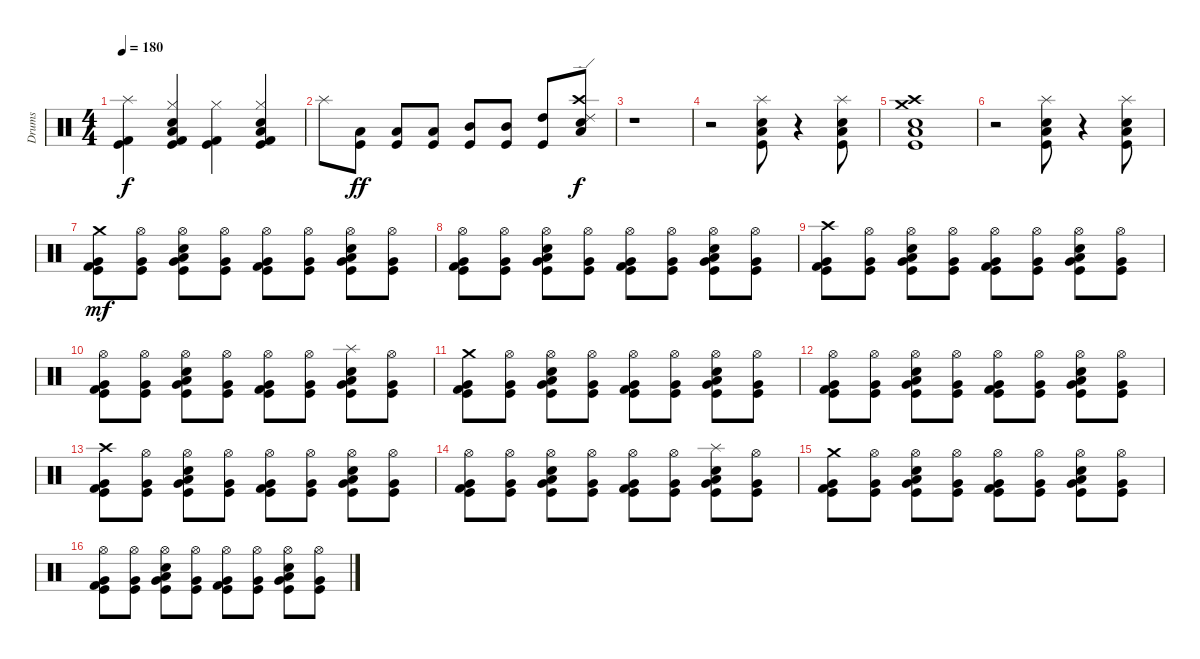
\track ("Drums" "Drums") {instrument percussion}
\staff {score}
\articulation defaults
\ts (4 4)
\tempo 180
\clef neutral
\ks c
("Splash (hit)" "Kick (hit) 2" "Kick (hit)").4{dy f} ("Hi-Hat (closed)" "Electric Snare (hit)" "Low Tom (hit)" "Kick (hit) 2" "Kick (hit)").4 ("Hi-Hat (closed)" "Kick (hit) 2" "Kick (hit)").4 ("Hi-Hat (closed)" "Electric Snare (hit)" "Low Tom (hit)" "Kick (hit) 2" "Kick (hit)").4 |
"Splash (hit)".8 ("Low Floor Tom (hit)" "Kick (hit)").8{dy ff} ("Low Floor Tom (hit)" "Kick (hit)").8 ("Low Tom (hit)" "Kick (hit)").8 ("Mid Tom (hit)" "Kick (hit)").8 ("Mid Tom (hit)" "Kick (hit)").8 ("High Tom (hit)" "Kick (hit)").8 ("Crash high (hit)" "Ride (edge) 2" "Low Tom (hit)" "Electric Snare (hit)").8{dy f} |
r.1 |
r.2 ("Kick (hit)" "Splash (hit)" "Low Tom (hit)" "Electric Snare (hit)").8 r.4 ("Splash (hit)" "Kick (hit)" "Low Tom (hit)" "Electric Snare (hit)").8 |
("Crash high (hit)" "Crash medium (hit)" "Kick (hit)" "Low Tom (hit)" "Electric Snare (hit)").1 |
r.2 ("Kick (hit)" "Splash (hit)" "Low Tom (hit)" "Electric Snare (hit)").8 r.4 ("Splash (hit)" "Kick (hit)" "Low Tom (hit)" "Electric Snare (hit)").8 |
("Crash medium (hit)" "Very Low Tom (hit)" "Kick (hit) 2" "Kick (hit)").8{dy mf} ("Hi-Hat (open)" "Very Low Tom (hit)" "Kick (hit)").8 ("Hi-Hat (open)" "Electric Snare (hit)" "Low Floor Tom (hit)" "Very Low Tom (hit)" "Kick (hit)").8 ("Hi-Hat (open)" "Very Low Tom (hit)" "Kick (hit)").8 ("Hi-Hat (open)" "Very Low Tom (hit)" "Kick (hit) 2" "Kick (hit)").8 ("Hi-Hat (open)" "Very Low Tom (hit)" "Kick (hit)").8 ("Hi-Hat (open)" "Electric Snare (hit)" "Low Floor Tom (hit)" "Very Low Tom (hit)" "Kick (hit)").8 ("Hi-Hat (open)" "Very Low Tom (hit)" "Kick (hit)").8 |
("Hi-Hat (open)" "Very Low Tom (hit)" "Kick (hit) 2" "Kick (hit)").8 ("Hi-Hat (open)" "Very Low Tom (hit)" "Kick (hit)").8 ("Hi-Hat (open)" "Electric Snare (hit)" "Low Floor Tom (hit)" "Very Low Tom (hit)" "Kick (hit)").8 ("Hi-Hat (open)" "Very Low Tom (hit)" "Kick (hit)").8 ("Hi-Hat (open)" "Very Low Tom (hit)" "Kick (hit) 2" "Kick (hit)").8 ("Hi-Hat (open)" "Very Low Tom (hit)" "Kick (hit)").8 ("Hi-Hat (open)" "Electric Snare (hit)" "Low Floor Tom (hit)" "Very Low Tom (hit)" "Kick (hit)").8 ("Hi-Hat (open)" "Very Low Tom (hit)" "Kick (hit)").8 |
("Crash high (hit)" "Very Low Tom (hit)" "Kick (hit) 2" "Kick (hit)").8 ("Hi-Hat (open)" "Very Low Tom (hit)" "Kick (hit)").8 ("Hi-Hat (open)" "Electric Snare (hit)" "Low Floor Tom (hit)" "Very Low Tom (hit)" "Kick (hit)").8 ("Hi-Hat (open)" "Very Low Tom (hit)" "Kick (hit)").8 ("Hi-Hat (open)" "Very Low Tom (hit)" "Kick (hit) 2" "Kick (hit)").8 ("Hi-Hat (open)" "Very Low Tom (hit)" "Kick (hit)").8 ("Hi-Hat (open)" "Electric Snare (hit)" "Low Floor Tom (hit)" "Very Low Tom (hit)" "Kick (hit)").8 ("Hi-Hat (open)" "Very Low Tom (hit)" "Kick (hit)").8 |
("Hi-Hat (open)" "Very Low Tom (hit)" "Kick (hit) 2" "Kick (hit)").8 ("Hi-Hat (open)" "Very Low Tom (hit)" "Kick (hit)").8 ("Hi-Hat (open)" "Electric Snare (hit)" "Low Floor Tom (hit)" "Very Low Tom (hit)" "Kick (hit)").8 ("Hi-Hat (open)" "Very Low Tom (hit)" "Kick (hit)").8 ("Hi-Hat (open)" "Very Low Tom (hit)" "Kick (hit) 2" "Kick (hit)").8 ("Hi-Hat (open)" "Very Low Tom (hit)" "Kick (hit)").8 ("Splash (hit)" "Electric Snare (hit)" "Low Floor Tom (hit)" "Very Low Tom (hit)" "Kick (hit)").8 ("Hi-Hat (open)" "Very Low Tom (hit)" "Kick (hit)").8 |
("Crash medium (hit)" "Very Low Tom (hit)" "Kick (hit) 2" "Kick (hit)").8 ("Hi-Hat (open)" "Very Low Tom (hit)" "Kick (hit)").8 ("Hi-Hat (open)" "Electric Snare (hit)" "Low Floor Tom (hit)" "Very Low Tom (hit)" "Kick (hit)").8 ("Hi-Hat (open)" "Very Low Tom (hit)" "Kick (hit)").8 ("Hi-Hat (open)" "Very Low Tom (hit)" "Kick (hit) 2" "Kick (hit)").8 ("Hi-Hat (open)" "Very Low Tom (hit)" "Kick (hit)").8 ("Hi-Hat (open)" "Electric Snare (hit)" "Low Floor Tom (hit)" "Very Low Tom (hit)" "Kick (hit)").8 ("Hi-Hat (open)" "Very Low Tom (hit)" "Kick (hit)").8 |
("Hi-Hat (open)" "Very Low Tom (hit)" "Kick (hit) 2" "Kick (hit)").8 ("Hi-Hat (open)" "Very Low Tom (hit)" "Kick (hit)").8 ("Hi-Hat (open)" "Electric Snare (hit)" "Low Floor Tom (hit)" "Very Low Tom (hit)" "Kick (hit)").8 ("Hi-Hat (open)" "Very Low Tom (hit)" "Kick (hit)").8 ("Hi-Hat (open)" "Very Low Tom (hit)" "Kick (hit) 2" "Kick (hit)").8 ("Hi-Hat (open)" "Very Low Tom (hit)" "Kick (hit)").8 ("Hi-Hat (open)" "Electric Snare (hit)" "Low Floor Tom (hit)" "Very Low Tom (hit)" "Kick (hit)").8 ("Hi-Hat (open)" "Very Low Tom (hit)" "Kick (hit)").8 |
("Crash high (hit)" "Very Low Tom (hit)" "Kick (hit) 2" "Kick (hit)").8 ("Hi-Hat (open)" "Very Low Tom (hit)" "Kick (hit)").8 ("Hi-Hat (open)" "Electric Snare (hit)" "Low Floor Tom (hit)" "Very Low Tom (hit)" "Kick (hit)").8 ("Hi-Hat (open)" "Very Low Tom (hit)" "Kick (hit)").8 ("Hi-Hat (open)" "Very Low Tom (hit)" "Kick (hit) 2" "Kick (hit)").8 ("Hi-Hat (open)" "Very Low Tom (hit)" "Kick (hit)").8 ("Hi-Hat (open)" "Electric Snare (hit)" "Low Floor Tom (hit)" "Very Low Tom (hit)" "Kick (hit)").8 ("Hi-Hat (open)" "Very Low Tom (hit)" "Kick (hit)").8 |
("Hi-Hat (open)" "Very Low Tom (hit)" "Kick (hit) 2" "Kick (hit)").8 ("Hi-Hat (open)" "Very Low Tom (hit)" "Kick (hit)").8 ("Hi-Hat (open)" "Electric Snare (hit)" "Low Floor Tom (hit)" "Very Low Tom (hit)" "Kick (hit)").8 ("Hi-Hat (open)" "Very Low Tom (hit)" "Kick (hit)").8 ("Hi-Hat (open)" "Very Low Tom (hit)" "Kick (hit) 2" "Kick (hit)").8 ("Hi-Hat (open)" "Very Low Tom (hit)" "Kick (hit)").8 ("Splash (hit)" "Electric Snare (hit)" "Low Floor Tom (hit)" "Very Low Tom (hit)" "Kick (hit)").8 ("Hi-Hat (open)" "Very Low Tom (hit)" "Kick (hit)").8 |
("Crash medium (hit)" "Very Low Tom (hit)" "Kick (hit) 2" "Kick (hit)").8 ("Hi-Hat (open)" "Very Low Tom (hit)" "Kick (hit)").8 ("Hi-Hat (open)" "Electric Snare (hit)" "Low Floor Tom (hit)" "Very Low Tom (hit)" "Kick (hit)").8 ("Hi-Hat (open)" "Very Low Tom (hit)" "Kick (hit)").8 ("Hi-Hat (open)" "Very Low Tom (hit)" "Kick (hit) 2" "Kick (hit)").8 ("Hi-Hat (open)" "Very Low Tom (hit)" "Kick (hit)").8 ("Hi-Hat (open)" "Electric Snare (hit)" "Low Floor Tom (hit)" "Very Low Tom (hit)" "Kick (hit)").8 ("Hi-Hat (open)" "Very Low Tom (hit)" "Kick (hit)").8 |
("Hi-Hat (open)" "Very Low Tom (hit)" "Kick (hit) 2" "Kick (hit)").8 ("Hi-Hat (open)" "Very Low Tom (hit)" "Kick (hit)").8 ("Hi-Hat (open)" "Electric Snare (hit)" "Low Floor Tom (hit)" "Very Low Tom (hit)" "Kick (hit)").8 ("Hi-Hat (open)" "Very Low Tom (hit)" "Kick (hit)").8 ("Hi-Hat (open)" "Very Low Tom (hit)" "Kick (hit) 2" "Kick (hit)").8 ("Hi-Hat (open)" "Very Low Tom (hit)" "Kick (hit)").8 ("Hi-Hat (open)" "Electric Snare (hit)" "Low Floor Tom (hit)" "Very Low Tom (hit)" "Kick (hit)").8 ("Hi-Hat (open)" "Very Low Tom (hit)" "Kick (hit)").8
